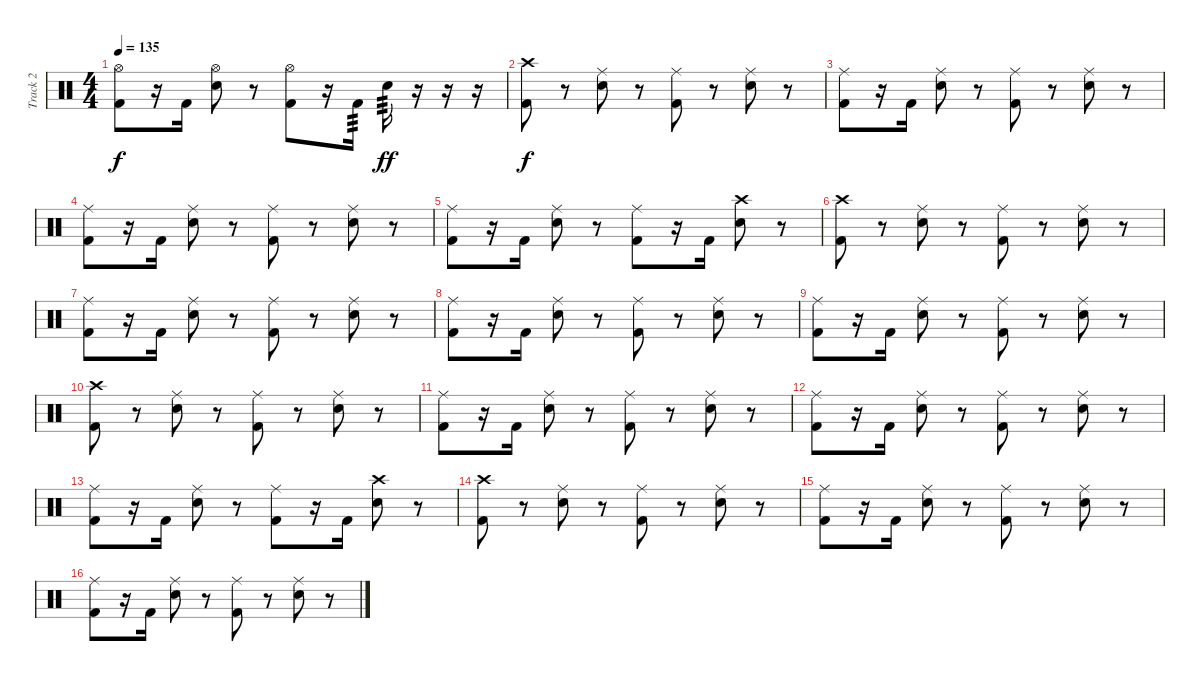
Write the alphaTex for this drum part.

\track ("Track 2" "Track 2") {instrument percussion}
\staff {score}
\articulation defaults
\ts (4 4)
\tempo 135
\clef neutral
\ks c
("Hi-Hat (open)" "Kick (hit) 2").8{dy f} r.16 "Kick (hit) 2".16 ("Hi-Hat (open)" "Electric Snare (hit)").8 r.8 ("Hi-Hat (open)" "Kick (hit) 2").8 r.16 "Kick (hit) 2".16{tp 3} "Electric Snare (hit)".16{tp 3 dy ff} r.16 r.16 r.16 |
("Crash high (hit)" "Kick (hit) 2").8{dy f} r.8 ("Ride (middle)" "Electric Snare (hit)").8 r.8 ("Ride (middle)" "Kick (hit) 2").8 r.8 ("Ride (middle)" "Electric Snare (hit)").8 r.8 |
("Ride (middle)" "Kick (hit) 2").8 r.16 "Kick (hit) 2".16 ("Ride (middle)" "Electric Snare (hit)").8 r.8 ("Ride (middle)" "Kick (hit) 2").8 r.8 ("Ride (middle)" "Electric Snare (hit)").8 r.8 |
("Ride (middle)" "Kick (hit) 2").8 r.16 "Kick (hit) 2".16 ("Ride (middle)" "Electric Snare (hit)").8 r.8 ("Ride (middle)" "Kick (hit) 2").8 r.8 ("Ride (middle)" "Electric Snare (hit)").8 r.8 |
("Ride (middle)" "Kick (hit) 2").8 r.16 "Kick (hit) 2".16 ("Ride (middle)" "Electric Snare (hit)").8 r.8 ("Ride (middle)" "Kick (hit) 2").8 r.16 "Kick (hit) 2".16 ("Crash high (hit)" "Electric Snare (hit)").8 r.8 |
("Crash high (hit)" "Kick (hit) 2").8 r.8 ("Ride (middle)" "Electric Snare (hit)").8 r.8 ("Ride (middle)" "Kick (hit) 2").8 r.8 ("Ride (middle)" "Electric Snare (hit)").8 r.8 |
("Ride (middle)" "Kick (hit) 2").8 r.16 "Kick (hit) 2".16 ("Ride (middle)" "Electric Snare (hit)").8 r.8 ("Ride (middle)" "Kick (hit) 2").8 r.8 ("Ride (middle)" "Electric Snare (hit)").8 r.8 |
("Ride (middle)" "Kick (hit) 2").8 r.16 "Kick (hit) 2".16 ("Ride (middle)" "Electric Snare (hit)").8 r.8 ("Ride (middle)" "Kick (hit) 2").8 r.8 ("Ride (middle)" "Electric Snare (hit)").8 r.8 |
("Ride (middle)" "Kick (hit) 2").8 r.16 "Kick (hit) 2".16 ("Ride (middle)" "Electric Snare (hit)").8 r.8 ("Ride (middle)" "Kick (hit) 2").8 r.8 ("Ride (middle)" "Electric Snare (hit)").8 r.8 |
("Crash high (hit)" "Kick (hit) 2").8 r.8 ("Ride (middle)" "Electric Snare (hit)").8 r.8 ("Ride (middle)" "Kick (hit) 2").8 r.8 ("Ride (middle)" "Electric Snare (hit)").8 r.8 |
("Ride (middle)" "Kick (hit) 2").8 r.16 "Kick (hit) 2".16 ("Ride (middle)" "Electric Snare (hit)").8 r.8 ("Ride (middle)" "Kick (hit) 2").8 r.8 ("Ride (middle)" "Electric Snare (hit)").8 r.8 |
("Ride (middle)" "Kick (hit) 2").8 r.16 "Kick (hit) 2".16 ("Ride (middle)" "Electric Snare (hit)").8 r.8 ("Ride (middle)" "Kick (hit) 2").8 r.8 ("Ride (middle)" "Electric Snare (hit)").8 r.8 |
("Ride (middle)" "Kick (hit) 2").8 r.16 "Kick (hit) 2".16 ("Ride (middle)" "Electric Snare (hit)").8 r.8 ("Ride (middle)" "Kick (hit) 2").8 r.16 "Kick (hit) 2".16 ("Crash high (hit)" "Electric Snare (hit)").8 r.8 |
("Crash high (hit)" "Kick (hit) 2").8 r.8 ("Ride (middle)" "Electric Snare (hit)").8 r.8 ("Ride (middle)" "Kick (hit) 2").8 r.8 ("Ride (middle)" "Electric Snare (hit)").8 r.8 |
("Ride (middle)" "Kick (hit) 2").8 r.16 "Kick (hit) 2".16 ("Ride (middle)" "Electric Snare (hit)").8 r.8 ("Ride (middle)" "Kick (hit) 2").8 r.8 ("Ride (middle)" "Electric Snare (hit)").8 r.8 |
("Ride (middle)" "Kick (hit) 2").8 r.16 "Kick (hit) 2".16 ("Ride (middle)" "Electric Snare (hit)").8 r.8 ("Ride (middle)" "Kick (hit) 2").8 r.8 ("Ride (middle)" "Electric Snare (hit)").8 r.8
